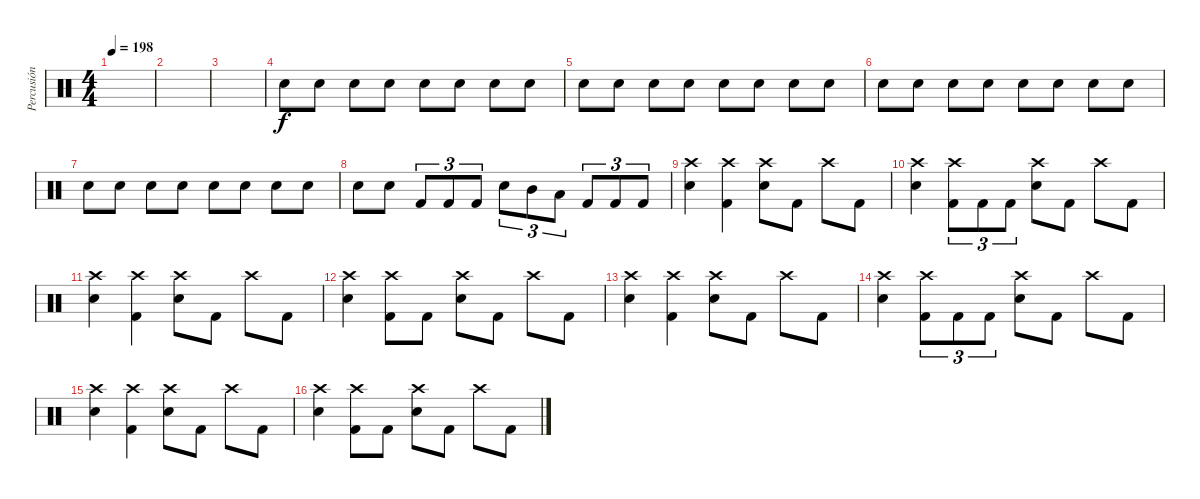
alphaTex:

\track ("Percusión" "Percusión") {instrument percussion}
\staff {score}
\articulation defaults
\ts (4 4)
\tempo 198
\clef neutral
\ks c
|
|
|
"Electric Snare (hit)".8{volume 14} "Electric Snare (hit)".8 "Electric Snare (hit)".8 "Electric Snare (hit)".8 "Electric Snare (hit)".8 "Electric Snare (hit)".8 "Electric Snare (hit)".8 "Electric Snare (hit)".8 |
"Electric Snare (hit)".8 "Electric Snare (hit)".8 "Electric Snare (hit)".8 "Electric Snare (hit)".8 "Electric Snare (hit)".8 "Electric Snare (hit)".8 "Electric Snare (hit)".8 "Electric Snare (hit)".8 |
"Electric Snare (hit)".8 "Electric Snare (hit)".8 "Electric Snare (hit)".8 "Electric Snare (hit)".8 "Electric Snare (hit)".8 "Electric Snare (hit)".8 "Electric Snare (hit)".8 "Electric Snare (hit)".8 |
"Electric Snare (hit)".8 "Electric Snare (hit)".8 "Electric Snare (hit)".8 "Electric Snare (hit)".8 "Electric Snare (hit)".8 "Electric Snare (hit)".8 "Electric Snare (hit)".8 "Electric Snare (hit)".8 |
"Electric Snare (hit)".8 "Electric Snare (hit)".8 "Kick (hit) 2".8{tu (3 2)} "Kick (hit) 2".8{tu (3 2)} "Kick (hit) 2".8{tu (3 2)} "Electric Snare (hit)".8{tu (3 2)} "Mid Tom (hit)".8{tu (3 2)} "Low Tom (hit)".8{tu (3 2)} "Kick (hit) 2".8{tu (3 2)} "Kick (hit) 2".8{tu (3 2)} "Kick (hit) 2".8{tu (3 2)} |
("Crash high (hit)" "Electric Snare (hit)").4 ("Crash high (hit)" "Kick (hit) 2").4 ("Crash high (hit)" "Electric Snare (hit)").8 "Kick (hit) 2".8 "Crash high (hit)".8 "Kick (hit) 2".8 |
("Crash high (hit)" "Electric Snare (hit)").4 ("Crash high (hit)" "Kick (hit) 2").8{tu (3 2)} "Kick (hit) 2".8{tu (3 2)} "Kick (hit) 2".8{tu (3 2)} ("Crash high (hit)" "Electric Snare (hit)").8 "Kick (hit) 2".8 "Crash high (hit)".8 "Kick (hit) 2".8 |
("Crash high (hit)" "Electric Snare (hit)").4 ("Crash high (hit)" "Kick (hit) 2").4 ("Crash high (hit)" "Electric Snare (hit)").8 "Kick (hit) 2".8 "Crash high (hit)".8 "Kick (hit) 2".8 |
("Crash high (hit)" "Electric Snare (hit)").4 ("Crash high (hit)" "Kick (hit) 2").8 "Kick (hit) 2".8 ("Crash high (hit)" "Electric Snare (hit)").8 "Kick (hit) 2".8 "Crash high (hit)".8 "Kick (hit) 2".8 |
("Crash high (hit)" "Electric Snare (hit)").4 ("Crash high (hit)" "Kick (hit) 2").4 ("Crash high (hit)" "Electric Snare (hit)").8 "Kick (hit) 2".8 "Crash high (hit)".8 "Kick (hit) 2".8 |
("Crash high (hit)" "Electric Snare (hit)").4 ("Crash high (hit)" "Kick (hit) 2").8{tu (3 2)} "Kick (hit) 2".8{tu (3 2)} "Kick (hit) 2".8{tu (3 2)} ("Crash high (hit)" "Electric Snare (hit)").8 "Kick (hit) 2".8 "Crash high (hit)".8 "Kick (hit) 2".8 |
("Crash high (hit)" "Electric Snare (hit)").4 ("Crash high (hit)" "Kick (hit) 2").4 ("Crash high (hit)" "Electric Snare (hit)").8 "Kick (hit) 2".8 "Crash high (hit)".8 "Kick (hit) 2".8 |
("Crash high (hit)" "Electric Snare (hit)").4 ("Crash high (hit)" "Kick (hit) 2").8 "Kick (hit) 2".8 ("Crash high (hit)" "Electric Snare (hit)").8 "Kick (hit) 2".8 "Crash high (hit)".8 "Kick (hit) 2".8
